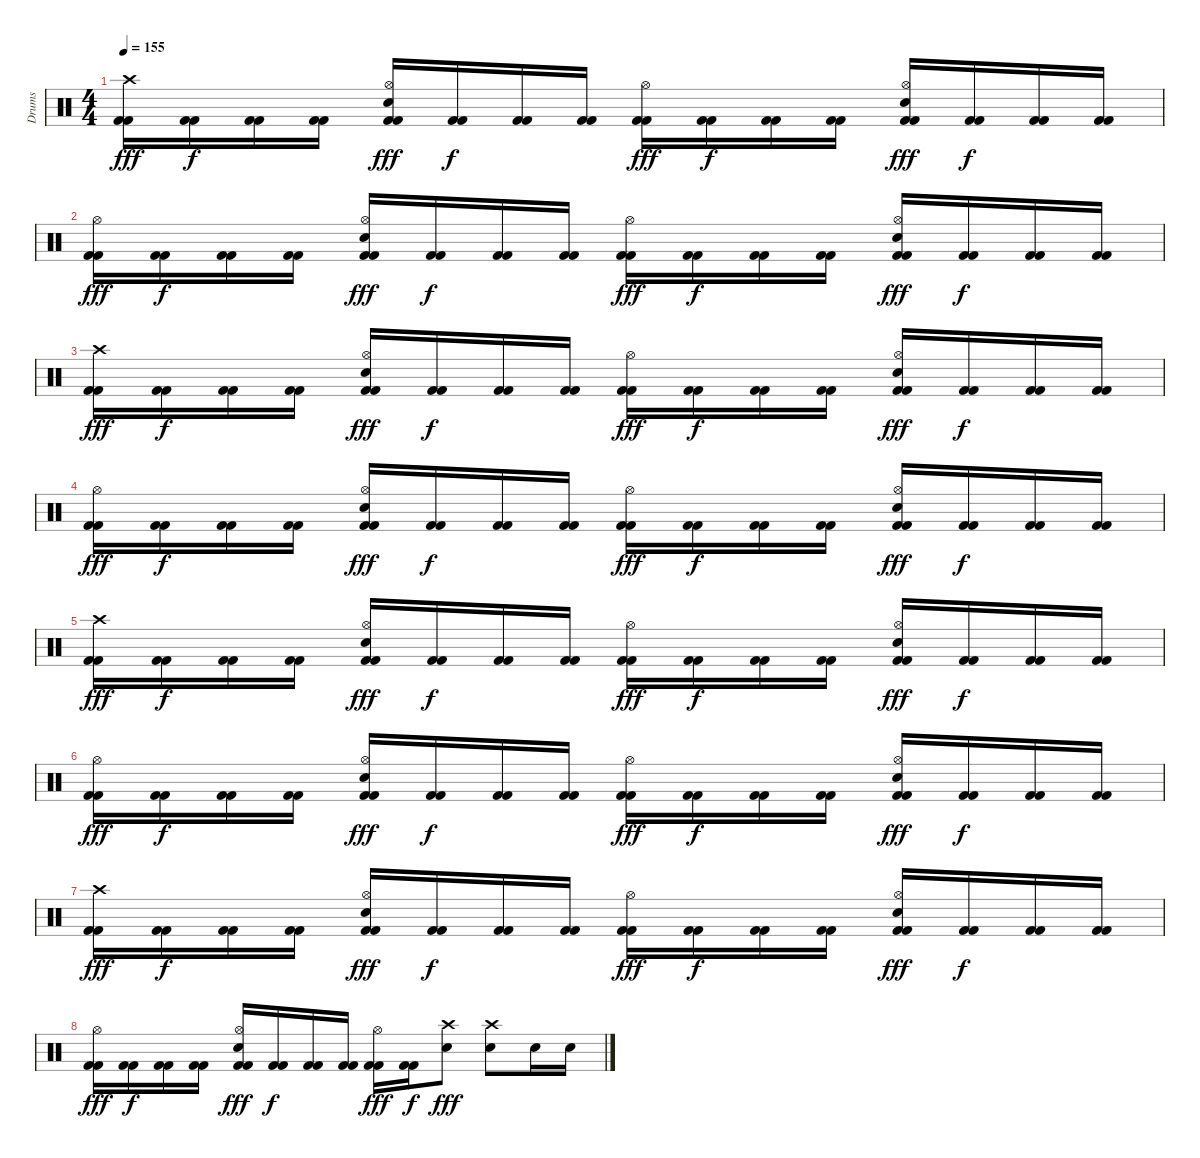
\track ("Drums" "Drums") {instrument percussion}
\staff {score}
\articulation defaults
\ts (4 4)
\tempo 155
\clef neutral
\ks c
("Crash high (hit)" "Kick (hit) 2" "Kick (hit) 2").16{dy fff} ("Kick (hit) 2" "Kick (hit) 2").16{dy f} ("Kick (hit) 2" "Kick (hit) 2").16 ("Kick (hit) 2" "Kick (hit) 2").16 ("Hi-Hat (open)" "Kick (hit) 2" "Kick (hit) 2" "Snare (hit) 2").16{dy fff} ("Kick (hit) 2" "Kick (hit) 2").16{dy f} ("Kick (hit) 2" "Kick (hit) 2").16 ("Kick (hit) 2" "Kick (hit) 2").16 ("Hi-Hat (open)" "Kick (hit) 2" "Kick (hit) 2").16{dy fff} ("Kick (hit) 2" "Kick (hit) 2").16{dy f} ("Kick (hit) 2" "Kick (hit) 2").16 ("Kick (hit) 2" "Kick (hit) 2").16 ("Hi-Hat (open)" "Kick (hit) 2" "Kick (hit) 2" "Snare (hit) 2").16{dy fff} ("Kick (hit) 2" "Kick (hit) 2").16{dy f} ("Kick (hit) 2" "Kick (hit) 2").16 ("Kick (hit) 2" "Kick (hit) 2").16 |
("Hi-Hat (open)" "Kick (hit) 2" "Kick (hit) 2").16{dy fff} ("Kick (hit) 2" "Kick (hit) 2").16{dy f} ("Kick (hit) 2" "Kick (hit) 2").16 ("Kick (hit) 2" "Kick (hit) 2").16 ("Hi-Hat (open)" "Kick (hit) 2" "Kick (hit) 2" "Snare (hit) 2").16{dy fff} ("Kick (hit) 2" "Kick (hit) 2").16{dy f} ("Kick (hit) 2" "Kick (hit) 2").16 ("Kick (hit) 2" "Kick (hit) 2").16 ("Hi-Hat (open)" "Kick (hit) 2" "Kick (hit) 2").16{dy fff} ("Kick (hit) 2" "Kick (hit) 2").16{dy f} ("Kick (hit) 2" "Kick (hit) 2").16 ("Kick (hit) 2" "Kick (hit) 2").16 ("Hi-Hat (open)" "Kick (hit) 2" "Kick (hit) 2" "Snare (hit) 2").16{dy fff} ("Kick (hit) 2" "Kick (hit) 2").16{dy f} ("Kick (hit) 2" "Kick (hit) 2").16 ("Kick (hit) 2" "Kick (hit) 2").16 |
("Crash high (hit)" "Kick (hit) 2" "Kick (hit) 2").16{dy fff} ("Kick (hit) 2" "Kick (hit) 2").16{dy f} ("Kick (hit) 2" "Kick (hit) 2").16 ("Kick (hit) 2" "Kick (hit) 2").16 ("Hi-Hat (open)" "Kick (hit) 2" "Kick (hit) 2" "Snare (hit) 2").16{dy fff} ("Kick (hit) 2" "Kick (hit) 2").16{dy f} ("Kick (hit) 2" "Kick (hit) 2").16 ("Kick (hit) 2" "Kick (hit) 2").16 ("Hi-Hat (open)" "Kick (hit) 2" "Kick (hit) 2").16{dy fff} ("Kick (hit) 2" "Kick (hit) 2").16{dy f} ("Kick (hit) 2" "Kick (hit) 2").16 ("Kick (hit) 2" "Kick (hit) 2").16 ("Hi-Hat (open)" "Kick (hit) 2" "Kick (hit) 2" "Snare (hit) 2").16{dy fff} ("Kick (hit) 2" "Kick (hit) 2").16{dy f} ("Kick (hit) 2" "Kick (hit) 2").16 ("Kick (hit) 2" "Kick (hit) 2").16 |
("Hi-Hat (open)" "Kick (hit) 2" "Kick (hit) 2").16{dy fff} ("Kick (hit) 2" "Kick (hit) 2").16{dy f} ("Kick (hit) 2" "Kick (hit) 2").16 ("Kick (hit) 2" "Kick (hit) 2").16 ("Hi-Hat (open)" "Kick (hit) 2" "Kick (hit) 2" "Snare (hit) 2").16{dy fff} ("Kick (hit) 2" "Kick (hit) 2").16{dy f} ("Kick (hit) 2" "Kick (hit) 2").16 ("Kick (hit) 2" "Kick (hit) 2").16 ("Hi-Hat (open)" "Kick (hit) 2" "Kick (hit) 2").16{dy fff} ("Kick (hit) 2" "Kick (hit) 2").16{dy f} ("Kick (hit) 2" "Kick (hit) 2").16 ("Kick (hit) 2" "Kick (hit) 2").16 ("Hi-Hat (open)" "Kick (hit) 2" "Kick (hit) 2" "Snare (hit) 2").16{dy fff} ("Kick (hit) 2" "Kick (hit) 2").16{dy f} ("Kick (hit) 2" "Kick (hit) 2").16 ("Kick (hit) 2" "Kick (hit) 2").16 |
("Crash high (hit)" "Kick (hit) 2" "Kick (hit) 2").16{dy fff} ("Kick (hit) 2" "Kick (hit) 2").16{dy f} ("Kick (hit) 2" "Kick (hit) 2").16 ("Kick (hit) 2" "Kick (hit) 2").16 ("Hi-Hat (open)" "Kick (hit) 2" "Kick (hit) 2" "Snare (hit) 2").16{dy fff} ("Kick (hit) 2" "Kick (hit) 2").16{dy f} ("Kick (hit) 2" "Kick (hit) 2").16 ("Kick (hit) 2" "Kick (hit) 2").16 ("Hi-Hat (open)" "Kick (hit) 2" "Kick (hit) 2").16{dy fff} ("Kick (hit) 2" "Kick (hit) 2").16{dy f} ("Kick (hit) 2" "Kick (hit) 2").16 ("Kick (hit) 2" "Kick (hit) 2").16 ("Hi-Hat (open)" "Kick (hit) 2" "Kick (hit) 2" "Snare (hit) 2").16{dy fff} ("Kick (hit) 2" "Kick (hit) 2").16{dy f} ("Kick (hit) 2" "Kick (hit) 2").16 ("Kick (hit) 2" "Kick (hit) 2").16 |
("Hi-Hat (open)" "Kick (hit) 2" "Kick (hit) 2").16{dy fff} ("Kick (hit) 2" "Kick (hit) 2").16{dy f} ("Kick (hit) 2" "Kick (hit) 2").16 ("Kick (hit) 2" "Kick (hit) 2").16 ("Hi-Hat (open)" "Kick (hit) 2" "Kick (hit) 2" "Snare (hit) 2").16{dy fff} ("Kick (hit) 2" "Kick (hit) 2").16{dy f} ("Kick (hit) 2" "Kick (hit) 2").16 ("Kick (hit) 2" "Kick (hit) 2").16 ("Hi-Hat (open)" "Kick (hit) 2" "Kick (hit) 2").16{dy fff} ("Kick (hit) 2" "Kick (hit) 2").16{dy f} ("Kick (hit) 2" "Kick (hit) 2").16 ("Kick (hit) 2" "Kick (hit) 2").16 ("Hi-Hat (open)" "Kick (hit) 2" "Kick (hit) 2" "Snare (hit) 2").16{dy fff} ("Kick (hit) 2" "Kick (hit) 2").16{dy f} ("Kick (hit) 2" "Kick (hit) 2").16 ("Kick (hit) 2" "Kick (hit) 2").16 |
("Crash high (hit)" "Kick (hit) 2" "Kick (hit) 2").16{dy fff} ("Kick (hit) 2" "Kick (hit) 2").16{dy f} ("Kick (hit) 2" "Kick (hit) 2").16 ("Kick (hit) 2" "Kick (hit) 2").16 ("Hi-Hat (open)" "Kick (hit) 2" "Kick (hit) 2" "Snare (hit) 2").16{dy fff} ("Kick (hit) 2" "Kick (hit) 2").16{dy f} ("Kick (hit) 2" "Kick (hit) 2").16 ("Kick (hit) 2" "Kick (hit) 2").16 ("Hi-Hat (open)" "Kick (hit) 2" "Kick (hit) 2").16{dy fff} ("Kick (hit) 2" "Kick (hit) 2").16{dy f} ("Kick (hit) 2" "Kick (hit) 2").16 ("Kick (hit) 2" "Kick (hit) 2").16 ("Hi-Hat (open)" "Kick (hit) 2" "Kick (hit) 2" "Snare (hit) 2").16{dy fff} ("Kick (hit) 2" "Kick (hit) 2").16{dy f} ("Kick (hit) 2" "Kick (hit) 2").16 ("Kick (hit) 2" "Kick (hit) 2").16 |
("Hi-Hat (open)" "Kick (hit) 2" "Kick (hit) 2").16{dy fff} ("Kick (hit) 2" "Kick (hit) 2").16{dy f} ("Kick (hit) 2" "Kick (hit) 2").16 ("Kick (hit) 2" "Kick (hit) 2").16 ("Hi-Hat (open)" "Kick (hit) 2" "Kick (hit) 2" "Snare (hit) 2").16{dy fff} ("Kick (hit) 2" "Kick (hit) 2").16{dy f} ("Kick (hit) 2" "Kick (hit) 2").16 ("Kick (hit) 2" "Kick (hit) 2").16 ("Hi-Hat (open)" "Kick (hit) 2" "Kick (hit) 2").16{dy fff} ("Kick (hit) 2" "Kick (hit) 2").16{dy f} ("Crash high (hit)" "Snare (hit) 2").8{dy fff} ("Crash high (hit)" "Snare (hit) 2").8 "Snare (hit) 2".16 "Snare (hit) 2".16
